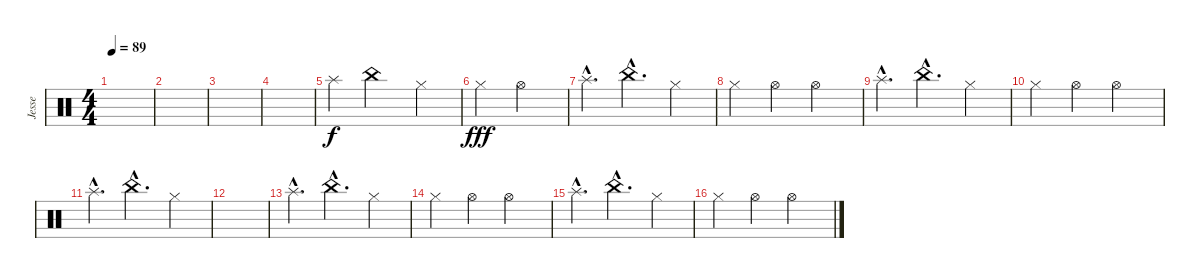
\track ("Jesse" "Jesse") {instrument percussion}
\staff {score}
\articulation defaults
\ts (4 4)
\tempo 89
\clef neutral
\ks c
|
|
|
|
"Splash (hit)".4 "China (hit)".2 "Hi-Hat (closed)".4{dy f} |
"Hi-Hat (closed)".4{dy fff} "Hi-Hat (open)".2 |
"Splash (hit)"{hac}.4{d} "China (hit)"{hac}.4{d} "Hi-Hat (closed)".4 |
"Hi-Hat (closed)".4 "Hi-Hat (open)".4 "Hi-Hat (open)".2 |
"Splash (hit)"{hac}.4{d} "China (hit)"{hac}.4{d} "Hi-Hat (closed)".4 |
"Hi-Hat (closed)".4 "Hi-Hat (open)".4 "Hi-Hat (open)".2 |
"Splash (hit)"{hac}.4{d} "China (hit)"{hac}.4{d} "Hi-Hat (closed)".4 |
|
"Splash (hit)"{hac}.4{d} "China (hit)"{hac}.4{d} "Hi-Hat (closed)".4 |
"Hi-Hat (closed)".4 "Hi-Hat (open)".4 "Hi-Hat (open)".2 |
"Splash (hit)"{hac}.4{d} "China (hit)"{hac}.4{d} "Hi-Hat (closed)".4 |
"Hi-Hat (closed)".4 "Hi-Hat (open)".4 "Hi-Hat (open)".2
